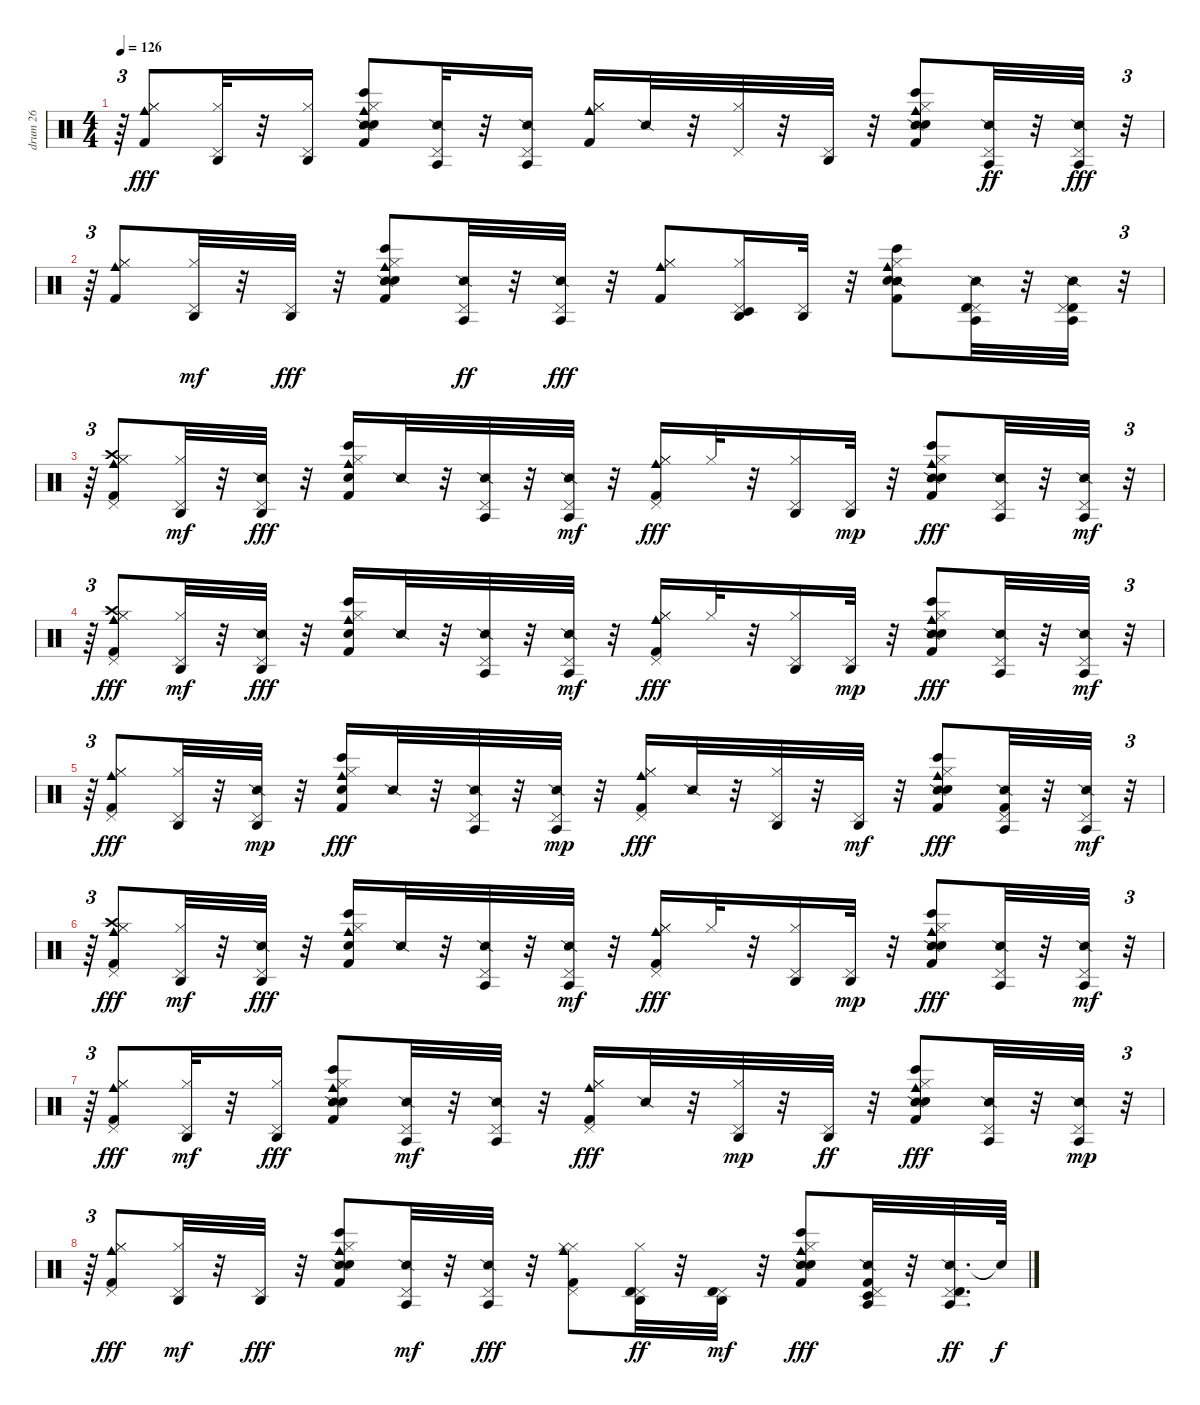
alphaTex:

\track ("drum 26" "drum 26") {instrument percussion}
\staff {score}
\articulation defaults
\ts (4 4)
\tempo 126
\clef neutral
\ks c
r.64{tu (3 2) dy fff} ("Hi-Hat (closed)" "Kick (hit) 2" "Hi-Hat (closed)" "Cowbell medium (hit)").8 ("Hi-Hat (closed)" "Pedal Hi-Hat (hit)" "Agogo high (hit)").32 r.32 ("Hi-Hat (closed)" "Agogo high (hit)" "Pedal Hi-Hat (hit)").16 ("Bongo High (hit)" "Snare (side stick) 2" "Kick (hit) 2" "Hand Clap (hit)" "Hi-Hat (closed)" "Cowbell medium (hit)").8 ("Snare (side stick) 2" "Pedal Hi-Hat (hit)" "Agogo tow (hit)").32 r.32 ("Snare (side stick) 2" "Agogo tow (hit)" "Pedal Hi-Hat (hit)").16 ("Hi-Hat (closed)" "Kick (hit) 2" "Hi-Hat (closed)" "Cowbell medium (hit)").16 "Snare (side stick) 2".32 r.32 ("Hi-Hat (closed)" "Pedal Hi-Hat (hit)").32 r.32 ("Agogo high (hit)" "Pedal Hi-Hat (hit)").32 r.32 ("Bongo High (hit)" "Snare (side stick) 2" "Kick (hit) 2" "Hand Clap (hit)" "Hi-Hat (closed)" "Cowbell medium (hit)").8 ("Snare (side stick) 2" "Pedal Hi-Hat (hit)" "Agogo tow (hit)").32{dy ff} r.32 ("Snare (side stick) 2" "Agogo tow (hit)" "Pedal Hi-Hat (hit)").32{dy fff} r.32{tu (3 2)} |
r.64{tu (3 2)} ("Hi-Hat (closed)" "Kick (hit) 2" "Hi-Hat (closed)" "Cowbell medium (hit)").8 ("Hi-Hat (closed)" "Pedal Hi-Hat (hit)" "Agogo high (hit)").32{dy mf} r.32 ("Agogo high (hit)" "Pedal Hi-Hat (hit)").32{dy fff} r.32 ("Bongo High (hit)" "Snare (side stick) 2" "Kick (hit) 2" "Hand Clap (hit)" "Hi-Hat (closed)" "Cowbell medium (hit)").8 ("Snare (side stick) 2" "Pedal Hi-Hat (hit)" "Agogo tow (hit)").32{dy ff} r.32 ("Snare (side stick) 2" "Agogo tow (hit)" "Pedal Hi-Hat (hit)").32{dy fff} r.32 ("Hi-Hat (closed)" "Kick (hit) 2" "Hi-Hat (closed)" "Cowbell medium (hit)").8 ("Hi-Hat (closed)" "Pedal Hi-Hat (hit)" "Timbale low (hit)" "Agogo high (hit)").16 ("Agogo high (hit)" "Pedal Hi-Hat (hit)").32 r.32 ("Bongo High (hit)" "Snare (side stick) 2" "Kick (hit) 2" "Hand Clap (hit)" "Hi-Hat (closed)" "Cowbell medium (hit)").8 ("Snare (side stick) 2" "Pedal Hi-Hat (hit)" "Timbale high (hit)" "Agogo tow (hit)").32 r.32 ("Snare (side stick) 2" "Timbale high (hit)" "Agogo tow (hit)" "Pedal Hi-Hat (hit)").32 r.32{tu (3 2)} |
r.64{tu (3 2)} ("Hi-Hat (closed)" "Kick (hit) 2" "Hi-Hat (closed)" "Pedal Hi-Hat (hit)" "Crash high (hit)" "Cowbell medium (hit)").8 ("Hi-Hat (closed)" "Pedal Hi-Hat (hit)" "Agogo high (hit)").32{dy mf} r.32 ("Snare (side stick) 2" "Pedal Hi-Hat (hit)" "Agogo high (hit)").32{dy fff} r.32 ("Bongo High (hit)" "Kick (hit) 2" "Hand Clap (hit)" "Hi-Hat (closed)" "Cowbell medium (hit)").16 "Snare (side stick) 2".32 r.32 ("Snare (side stick) 2" "Pedal Hi-Hat (hit)" "Agogo tow (hit)").32 r.32 ("Snare (side stick) 2" "Pedal Hi-Hat (hit)" "Agogo tow (hit)").32{dy mf} r.32 ("Hi-Hat (closed)" "Kick (hit) 2" "Hi-Hat (closed)" "Pedal Hi-Hat (hit)" "Cowbell medium (hit)").16{dy fff} "Hi-Hat (closed)".32 r.32 ("Hi-Hat (closed)" "Pedal Hi-Hat (hit)" "Agogo high (hit)").16 ("Pedal Hi-Hat (hit)" "Agogo high (hit)").32{dy mp} r.32 ("Bongo High (hit)" "Snare (side stick) 2" "Kick (hit) 2" "Hand Clap (hit)" "Hi-Hat (closed)" "Cowbell medium (hit)").8{dy fff} ("Snare (side stick) 2" "Pedal Hi-Hat (hit)" "Agogo tow (hit)").32 r.32 ("Snare (side stick) 2" "Pedal Hi-Hat (hit)" "Agogo tow (hit)").32{dy mf} r.32{tu (3 2)} |
r.64{tu (3 2)} ("Hi-Hat (closed)" "Kick (hit) 2" "Hi-Hat (closed)" "Pedal Hi-Hat (hit)" "Crash high (hit)" "Cowbell medium (hit)").8{dy fff} ("Hi-Hat (closed)" "Pedal Hi-Hat (hit)" "Agogo high (hit)").32{dy mf} r.32 ("Snare (side stick) 2" "Pedal Hi-Hat (hit)" "Agogo high (hit)").32{dy fff} r.32 ("Bongo High (hit)" "Kick (hit) 2" "Hand Clap (hit)" "Hi-Hat (closed)" "Cowbell medium (hit)").16 "Snare (side stick) 2".32 r.32 ("Snare (side stick) 2" "Pedal Hi-Hat (hit)" "Agogo tow (hit)").32 r.32 ("Snare (side stick) 2" "Pedal Hi-Hat (hit)" "Agogo tow (hit)").32{dy mf} r.32 ("Hi-Hat (closed)" "Kick (hit) 2" "Hi-Hat (closed)" "Pedal Hi-Hat (hit)" "Cowbell medium (hit)").16{dy fff} "Hi-Hat (closed)".32 r.32 ("Hi-Hat (closed)" "Pedal Hi-Hat (hit)" "Agogo high (hit)").16 ("Pedal Hi-Hat (hit)" "Agogo high (hit)").32{dy mp} r.32 ("Bongo High (hit)" "Snare (side stick) 2" "Kick (hit) 2" "Hand Clap (hit)" "Hi-Hat (closed)" "Cowbell medium (hit)").8{dy fff} ("Snare (side stick) 2" "Pedal Hi-Hat (hit)" "Agogo tow (hit)").32 r.32 ("Snare (side stick) 2" "Pedal Hi-Hat (hit)" "Agogo tow (hit)").32{dy mf} r.32{tu (3 2)} |
r.64{tu (3 2)} ("Hi-Hat (closed)" "Kick (hit) 2" "Hi-Hat (closed)" "Pedal Hi-Hat (hit)" "Cowbell medium (hit)").8{dy fff} ("Hi-Hat (closed)" "Pedal Hi-Hat (hit)" "Agogo high (hit)").32 r.32 ("Snare (side stick) 2" "Pedal Hi-Hat (hit)" "Agogo high (hit)").32{dy mp} r.32 ("Bongo High (hit)" "Kick (hit) 2" "Hand Clap (hit)" "Hi-Hat (closed)" "Cowbell medium (hit)").16{dy fff} "Snare (side stick) 2".32 r.32 ("Snare (side stick) 2" "Pedal Hi-Hat (hit)" "Agogo tow (hit)").32 r.32 ("Snare (side stick) 2" "Pedal Hi-Hat (hit)" "Agogo tow (hit)").32{dy mp} r.32 ("Hi-Hat (closed)" "Kick (hit) 2" "Hi-Hat (closed)" "Pedal Hi-Hat (hit)" "Cowbell medium (hit)").16{dy fff} "Snare (side stick) 2".32 r.32 ("Hi-Hat (closed)" "Pedal Hi-Hat (hit)" "Agogo high (hit)").32 r.32 ("Pedal Hi-Hat (hit)" "Agogo high (hit)").32{dy mf} r.32 ("Bongo High (hit)" "Snare (side stick) 2" "Kick (hit) 2" "Hand Clap (hit)" "Hi-Hat (closed)" "Cowbell medium (hit)").8{dy fff} ("Snare (side stick) 2" "Kick (hit) 2" "Pedal Hi-Hat (hit)" "Agogo tow (hit)").32 r.32 ("Snare (side stick) 2" "Pedal Hi-Hat (hit)" "Agogo tow (hit)").32{dy mf} r.32{tu (3 2)} |
r.64{tu (3 2)} ("Hi-Hat (closed)" "Kick (hit) 2" "Hi-Hat (closed)" "Pedal Hi-Hat (hit)" "Crash high (hit)" "Cowbell medium (hit)").8{dy fff} ("Hi-Hat (closed)" "Pedal Hi-Hat (hit)" "Agogo high (hit)").32{dy mf} r.32 ("Snare (side stick) 2" "Pedal Hi-Hat (hit)" "Agogo high (hit)").32{dy fff} r.32 ("Bongo High (hit)" "Kick (hit) 2" "Hand Clap (hit)" "Hi-Hat (closed)" "Cowbell medium (hit)").16 "Snare (side stick) 2".32 r.32 ("Snare (side stick) 2" "Pedal Hi-Hat (hit)" "Agogo tow (hit)").32 r.32 ("Snare (side stick) 2" "Pedal Hi-Hat (hit)" "Agogo tow (hit)").32{dy mf} r.32 ("Hi-Hat (closed)" "Kick (hit) 2" "Hi-Hat (closed)" "Pedal Hi-Hat (hit)" "Cowbell medium (hit)").16{dy fff} "Hi-Hat (closed)".32 r.32 ("Hi-Hat (closed)" "Pedal Hi-Hat (hit)" "Agogo high (hit)").16 ("Pedal Hi-Hat (hit)" "Agogo high (hit)").32{dy mp} r.32 ("Bongo High (hit)" "Snare (side stick) 2" "Kick (hit) 2" "Hand Clap (hit)" "Hi-Hat (closed)" "Cowbell medium (hit)").8{dy fff} ("Snare (side stick) 2" "Pedal Hi-Hat (hit)" "Agogo tow (hit)").32 r.32 ("Snare (side stick) 2" "Pedal Hi-Hat (hit)" "Agogo tow (hit)").32{dy mf} r.32{tu (3 2)} |
r.64{tu (3 2)} ("Hi-Hat (closed)" "Kick (hit) 2" "Hi-Hat (closed)" "Pedal Hi-Hat (hit)" "Cowbell medium (hit)").8{dy fff} ("Hi-Hat (closed)" "Pedal Hi-Hat (hit)" "Agogo high (hit)").32{dy mf} r.32 ("Hi-Hat (closed)" "Pedal Hi-Hat (hit)" "Agogo high (hit)").16{dy fff} ("Bongo High (hit)" "Snare (side stick) 2" "Kick (hit) 2" "Hand Clap (hit)" "Hi-Hat (closed)" "Cowbell medium (hit)").8 ("Snare (side stick) 2" "Pedal Hi-Hat (hit)" "Agogo tow (hit)").32{dy mf} r.32 ("Snare (side stick) 2" "Pedal Hi-Hat (hit)" "Agogo tow (hit)").32 r.32 ("Hi-Hat (closed)" "Kick (hit) 2" "Hi-Hat (closed)" "Pedal Hi-Hat (hit)" "Cowbell medium (hit)").16{dy fff} "Snare (side stick) 2".32 r.32 ("Hi-Hat (closed)" "Pedal Hi-Hat (hit)" "Agogo high (hit)").32{dy mp} r.32 ("Pedal Hi-Hat (hit)" "Agogo high (hit)").32{dy ff} r.32 ("Bongo High (hit)" "Snare (side stick) 2" "Kick (hit) 2" "Hand Clap (hit)" "Hi-Hat (closed)" "Cowbell medium (hit)").8{dy fff} ("Snare (side stick) 2" "Pedal Hi-Hat (hit)" "Agogo tow (hit)").32 r.32 ("Snare (side stick) 2" "Pedal Hi-Hat (hit)" "Agogo tow (hit)").32{dy mp} r.32{tu (3 2)} |
r.64{tu (3 2)} ("Hi-Hat (closed)" "Kick (hit) 2" "Hi-Hat (closed)" "Pedal Hi-Hat (hit)" "Cowbell medium (hit)").8{dy fff} ("Hi-Hat (closed)" "Pedal Hi-Hat (hit)" "Agogo high (hit)").32{dy mf} r.32 ("Pedal Hi-Hat (hit)" "Agogo high (hit)").32{dy fff} r.32 ("Bongo High (hit)" "Snare (side stick) 2" "Kick (hit) 2" "Hand Clap (hit)" "Hi-Hat (closed)" "Cowbell medium (hit)").8 ("Snare (side stick) 2" "Pedal Hi-Hat (hit)" "Agogo tow (hit)").32{dy mf} r.32 ("Snare (side stick) 2" "Pedal Hi-Hat (hit)" "Agogo tow (hit)").32{dy fff} r.32 ("Hi-Hat (closed)" "Kick (hit) 2" "Hi-Hat (closed)" "Pedal Hi-Hat (hit)" "Cowbell medium (hit)").8 ("Hi-Hat (closed)" "Pedal Hi-Hat (hit)" "Timbale high (hit)" "Agogo high (hit)").32{dy ff} r.32 ("Pedal Hi-Hat (hit)" "Timbale high (hit)" "Agogo high (hit)").32{dy mf} r.32 ("Bongo High (hit)" "Snare (side stick) 2" "Kick (hit) 2" "Hand Clap (hit)" "Hi-Hat (closed)" "Cowbell medium (hit)").8{dy fff} ("Snare (side stick) 2" "Kick (hit) 2" "Pedal Hi-Hat (hit)" "Timbale low (hit)" "Agogo tow (hit)").32 r.32 ("Snare (side stick) 2" "Pedal Hi-Hat (hit)" "Timbale high (hit)" "Agogo tow (hit)").32{d dy ff} "Snare (hit)"{t}.64{dy f}
